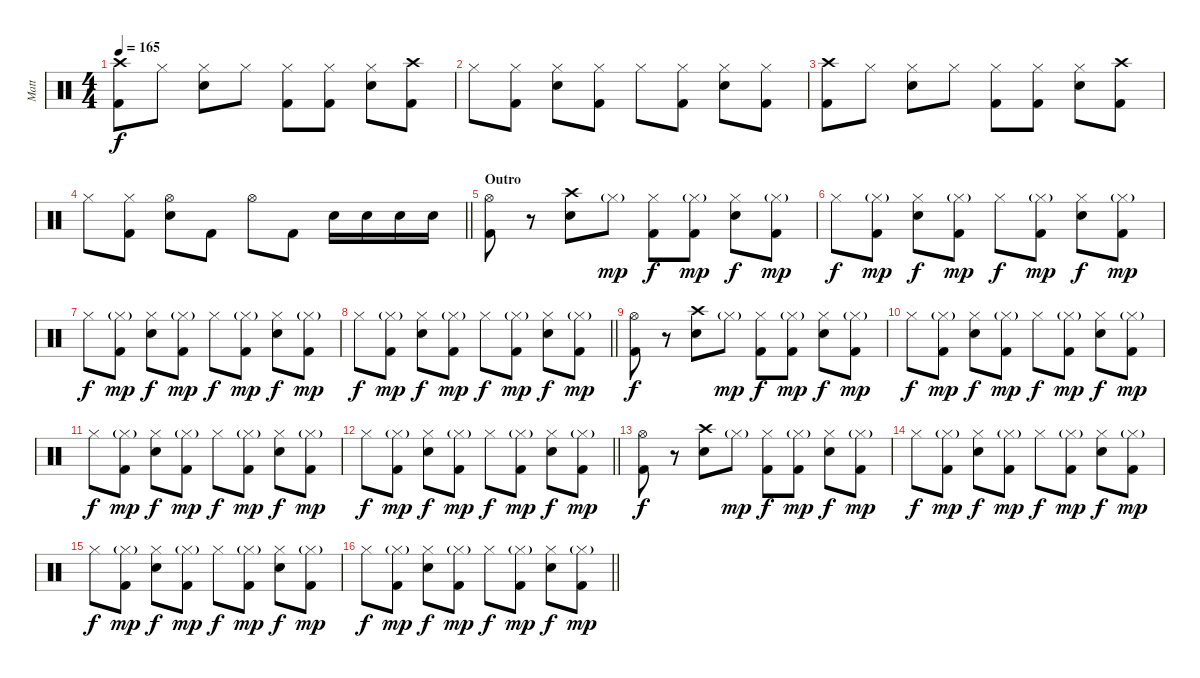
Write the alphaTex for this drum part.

\track ("Matt" "Matt") {instrument percussion}
\staff {score}
\articulation defaults
\ts (4 4)
\tempo 165
\clef neutral
\ks c
("Crash high (hit)" "Kick (hit) 2").8{dy f} "Hi-Hat (closed)".8 ("Hi-Hat (closed)" "Snare (hit) 2").8 "Hi-Hat (closed)".8 ("Hi-Hat (closed)" "Kick (hit) 2").8 ("Hi-Hat (closed)" "Kick (hit) 2").8 ("Hi-Hat (closed)" "Snare (hit) 2").8 ("Crash high (hit)" "Kick (hit) 2").8 |
"Hi-Hat (closed)".8 ("Hi-Hat (closed)" "Kick (hit) 2").8 ("Hi-Hat (closed)" "Snare (hit) 2").8 ("Hi-Hat (closed)" "Kick (hit) 2").8 "Hi-Hat (closed)".8 ("Hi-Hat (closed)" "Kick (hit) 2").8 ("Hi-Hat (closed)" "Snare (hit) 2").8 ("Hi-Hat (closed)" "Kick (hit) 2").8 |
("Crash high (hit)" "Kick (hit) 2").8 "Hi-Hat (closed)".8 ("Hi-Hat (closed)" "Snare (hit) 2").8 "Hi-Hat (closed)".8 ("Hi-Hat (closed)" "Kick (hit) 2").8 ("Hi-Hat (closed)" "Kick (hit) 2").8 ("Hi-Hat (closed)" "Snare (hit) 2").8 ("Crash high (hit)" "Kick (hit) 2").8 |
\barLineRight lightlight "Hi-Hat (closed)".8
("Hi-Hat (closed)" "Kick (hit) 2").8 ("Hi-Hat (open)" "Snare (hit) 2").8 "Kick (hit) 2".8 "Hi-Hat (open)".8 "Kick (hit) 2".8 "Snare (hit) 2".16 "Snare (hit) 2".16 "Snare (hit) 2".16 "Snare (hit) 2".16 |
\section ("" "Outro")
("Hi-Hat (open)" "Kick (hit) 2").8 r.8 ("Crash high (hit)" "Snare (hit) 2").8 "Hi-Hat (closed)"{g}.8{dy mp} ("Hi-Hat (closed)" "Kick (hit) 2").8{dy f} ("Hi-Hat (closed)"{g} "Kick (hit) 2").8{dy mp} ("Hi-Hat (closed)" "Snare (hit) 2").8{dy f} ("Hi-Hat (closed)"{g} "Kick (hit) 2").8{dy mp} |
"Hi-Hat (closed)".8{dy f} ("Hi-Hat (closed)"{g} "Kick (hit) 2").8{dy mp} ("Hi-Hat (closed)" "Snare (hit) 2").8{dy f} ("Hi-Hat (closed)"{g} "Kick (hit) 2").8{dy mp} "Hi-Hat (closed)".8{dy f} ("Hi-Hat (closed)"{g} "Kick (hit) 2").8{dy mp} ("Hi-Hat (closed)" "Snare (hit) 2").8{dy f} ("Hi-Hat (closed)"{g} "Kick (hit) 2").8{dy mp} |
"Hi-Hat (closed)".8{dy f} ("Hi-Hat (closed)"{g} "Kick (hit) 2").8{dy mp} ("Hi-Hat (closed)" "Snare (hit) 2").8{dy f} ("Hi-Hat (closed)"{g} "Kick (hit) 2").8{dy mp} "Hi-Hat (closed)".8{dy f} ("Hi-Hat (closed)"{g} "Kick (hit) 2").8{dy mp} ("Hi-Hat (closed)" "Snare (hit) 2").8{dy f} ("Hi-Hat (closed)"{g} "Kick (hit) 2").8{dy mp} |
\barLineRight lightlight "Hi-Hat (closed)".8{dy f}
("Hi-Hat (closed)"{g} "Kick (hit) 2").8{dy mp} ("Hi-Hat (closed)" "Snare (hit) 2").8{dy f} ("Hi-Hat (closed)"{g} "Kick (hit) 2").8{dy mp} "Hi-Hat (closed)".8{dy f} ("Hi-Hat (closed)"{g} "Kick (hit) 2").8{dy mp} ("Hi-Hat (closed)" "Snare (hit) 2").8{dy f} ("Hi-Hat (closed)"{g} "Kick (hit) 2").8{dy mp} |
("Hi-Hat (open)" "Kick (hit) 2").8{dy f} r.8 ("Crash high (hit)" "Snare (hit) 2").8 "Hi-Hat (closed)"{g}.8{dy mp} ("Hi-Hat (closed)" "Kick (hit) 2").8{dy f} ("Hi-Hat (closed)"{g} "Kick (hit) 2").8{dy mp} ("Hi-Hat (closed)" "Snare (hit) 2").8{dy f} ("Hi-Hat (closed)"{g} "Kick (hit) 2").8{dy mp} |
"Hi-Hat (closed)".8{dy f} ("Hi-Hat (closed)"{g} "Kick (hit) 2").8{dy mp} ("Hi-Hat (closed)" "Snare (hit) 2").8{dy f} ("Hi-Hat (closed)"{g} "Kick (hit) 2").8{dy mp} "Hi-Hat (closed)".8{dy f} ("Hi-Hat (closed)"{g} "Kick (hit) 2").8{dy mp} ("Hi-Hat (closed)" "Snare (hit) 2").8{dy f} ("Hi-Hat (closed)"{g} "Kick (hit) 2").8{dy mp} |
"Hi-Hat (closed)".8{dy f} ("Hi-Hat (closed)"{g} "Kick (hit) 2").8{dy mp} ("Hi-Hat (closed)" "Snare (hit) 2").8{dy f} ("Hi-Hat (closed)"{g} "Kick (hit) 2").8{dy mp} "Hi-Hat (closed)".8{dy f} ("Hi-Hat (closed)"{g} "Kick (hit) 2").8{dy mp} ("Hi-Hat (closed)" "Snare (hit) 2").8{dy f} ("Hi-Hat (closed)"{g} "Kick (hit) 2").8{dy mp} |
\barLineRight lightlight "Hi-Hat (closed)".8{dy f}
("Hi-Hat (closed)"{g} "Kick (hit) 2").8{dy mp} ("Hi-Hat (closed)" "Snare (hit) 2").8{dy f} ("Hi-Hat (closed)"{g} "Kick (hit) 2").8{dy mp} "Hi-Hat (closed)".8{dy f} ("Hi-Hat (closed)"{g} "Kick (hit) 2").8{dy mp} ("Hi-Hat (closed)" "Snare (hit) 2").8{dy f} ("Hi-Hat (closed)"{g} "Kick (hit) 2").8{dy mp} |
("Hi-Hat (open)" "Kick (hit) 2").8{dy f} r.8 ("Crash high (hit)" "Snare (hit) 2").8 "Hi-Hat (closed)"{g}.8{dy mp} ("Hi-Hat (closed)" "Kick (hit) 2").8{dy f} ("Hi-Hat (closed)"{g} "Kick (hit) 2").8{dy mp} ("Hi-Hat (closed)" "Snare (hit) 2").8{dy f} ("Hi-Hat (closed)"{g} "Kick (hit) 2").8{dy mp} |
"Hi-Hat (closed)".8{dy f} ("Hi-Hat (closed)"{g} "Kick (hit) 2").8{dy mp} ("Hi-Hat (closed)" "Snare (hit) 2").8{dy f} ("Hi-Hat (closed)"{g} "Kick (hit) 2").8{dy mp} "Hi-Hat (closed)".8{dy f} ("Hi-Hat (closed)"{g} "Kick (hit) 2").8{dy mp} ("Hi-Hat (closed)" "Snare (hit) 2").8{dy f} ("Hi-Hat (closed)"{g} "Kick (hit) 2").8{dy mp} |
"Hi-Hat (closed)".8{dy f} ("Hi-Hat (closed)"{g} "Kick (hit) 2").8{dy mp} ("Hi-Hat (closed)" "Snare (hit) 2").8{dy f} ("Hi-Hat (closed)"{g} "Kick (hit) 2").8{dy mp} "Hi-Hat (closed)".8{dy f} ("Hi-Hat (closed)"{g} "Kick (hit) 2").8{dy mp} ("Hi-Hat (closed)" "Snare (hit) 2").8{dy f} ("Hi-Hat (closed)"{g} "Kick (hit) 2").8{dy mp} |
\barLineRight lightlight "Hi-Hat (closed)".8{dy f}
("Hi-Hat (closed)"{g} "Kick (hit) 2").8{dy mp} ("Hi-Hat (closed)" "Snare (hit) 2").8{dy f} ("Hi-Hat (closed)"{g} "Kick (hit) 2").8{dy mp} "Hi-Hat (closed)".8{dy f} ("Hi-Hat (closed)"{g} "Kick (hit) 2").8{dy mp} ("Hi-Hat (closed)" "Snare (hit) 2").8{dy f} ("Hi-Hat (closed)"{g} "Kick (hit) 2").8{dy mp}
